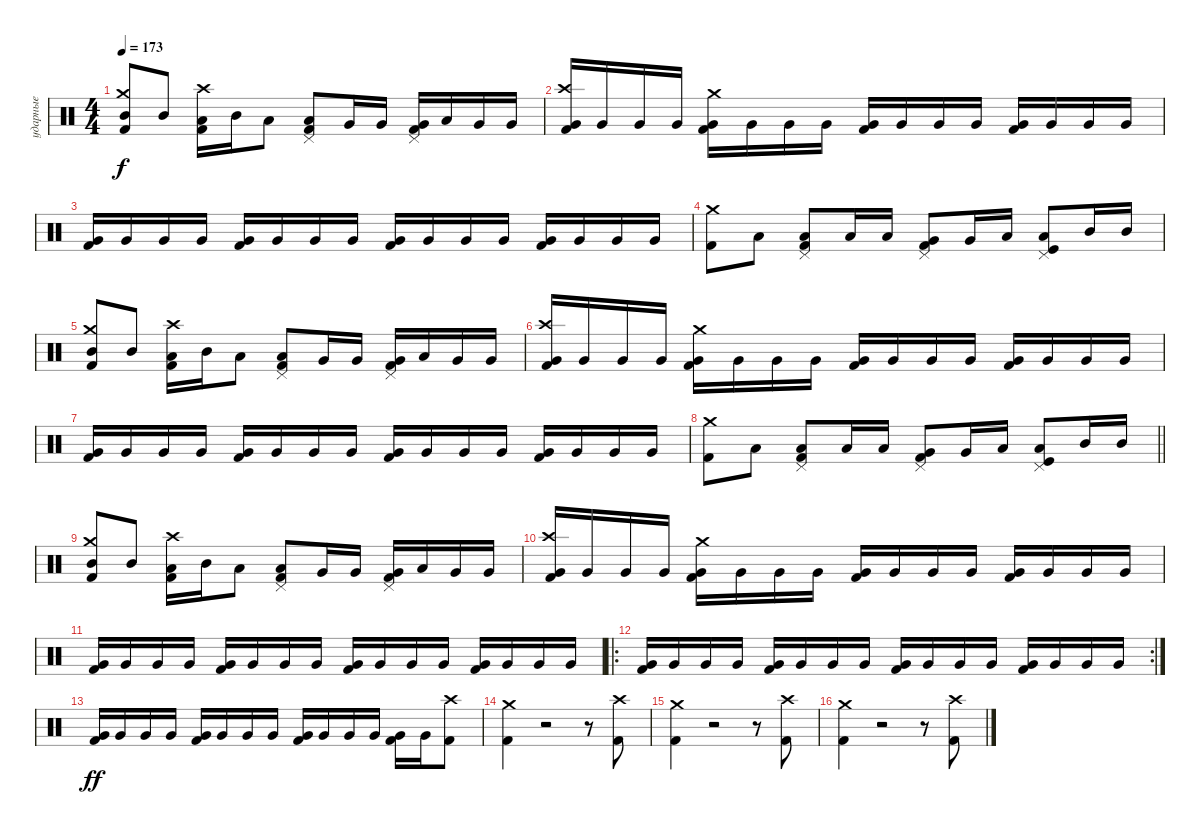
\track ("ударные" "ударные") {instrument percussion}
\staff {score}
\articulation defaults
\ts (4 4)
\tempo 173
\clef neutral
\ks aminor
("Mid Tom (hit)" "Crash medium (hit)" "Kick (hit) 2").8{dy f} "Mid Tom (hit)".8 ("Low Tom (hit)" "Crash high (hit)" "Kick (hit) 2").16 "Mid Tom (hit)".16 "Low Tom (hit)".8 ("Low Tom (hit)" "Kick (hit) 2" "Pedal Hi-Hat (hit)").8 "Very Low Tom (hit)".16 "Very Low Tom (hit)".16 ("Very Low Tom (hit)" "Kick (hit) 2" "Pedal Hi-Hat (hit)").16 "Low Floor Tom (hit)".16 "Very Low Tom (hit)".16 "Very Low Tom (hit)".16 |
("Very Low Tom (hit)" "Kick (hit) 2" "Crash high (hit)").16 "Very Low Tom (hit)".16 "Very Low Tom (hit)".16 "Very Low Tom (hit)".16 ("Very Low Tom (hit)" "Kick (hit) 2" "Crash medium (hit)").16 "Very Low Tom (hit)".16 "Very Low Tom (hit)".16 "Very Low Tom (hit)".16 ("Very Low Tom (hit)" "Kick (hit) 2").16 "Very Low Tom (hit)".16 "Very Low Tom (hit)".16 "Very Low Tom (hit)".16 ("Very Low Tom (hit)" "Kick (hit) 2").16 "Very Low Tom (hit)".16 "Very Low Tom (hit)".16 "Very Low Tom (hit)".16 |
("Very Low Tom (hit)" "Kick (hit) 2").16 "Very Low Tom (hit)".16 "Very Low Tom (hit)".16 "Very Low Tom (hit)".16 ("Very Low Tom (hit)" "Kick (hit) 2").16 "Very Low Tom (hit)".16 "Very Low Tom (hit)".16 "Very Low Tom (hit)".16 ("Very Low Tom (hit)" "Kick (hit) 2").16 "Very Low Tom (hit)".16 "Very Low Tom (hit)".16 "Very Low Tom (hit)".16 ("Very Low Tom (hit)" "Kick (hit) 2").16 "Very Low Tom (hit)".16 "Very Low Tom (hit)".16 "Very Low Tom (hit)".16 |
("Kick (hit) 2" "Crash medium (hit)").8 "Low Tom (hit)".8 ("Low Tom (hit)" "Kick (hit) 2" "Pedal Hi-Hat (hit)").8 "Low Tom (hit)".16 "Low Tom (hit)".16 ("Very Low Tom (hit)" "Kick (hit) 2" "Pedal Hi-Hat (hit)").8 "Very Low Tom (hit)".16 "Low Tom (hit)".16 ("Low Tom (hit)" "Kick (hit)" "Pedal Hi-Hat (hit)").8 "Mid Tom (hit)".16 "Mid Tom (hit)".16 |
("Mid Tom (hit)" "Crash medium (hit)" "Kick (hit) 2").8 "Mid Tom (hit)".8 ("Low Tom (hit)" "Crash high (hit)" "Kick (hit) 2").16 "Mid Tom (hit)".16 "Low Tom (hit)".8 ("Low Tom (hit)" "Kick (hit) 2" "Pedal Hi-Hat (hit)").8 "Very Low Tom (hit)".16 "Very Low Tom (hit)".16 ("Very Low Tom (hit)" "Kick (hit) 2" "Pedal Hi-Hat (hit)").16 "Low Floor Tom (hit)".16 "Very Low Tom (hit)".16 "Very Low Tom (hit)".16 |
("Very Low Tom (hit)" "Kick (hit) 2" "Crash high (hit)").16 "Very Low Tom (hit)".16 "Very Low Tom (hit)".16 "Very Low Tom (hit)".16 ("Very Low Tom (hit)" "Kick (hit) 2" "Crash medium (hit)").16 "Very Low Tom (hit)".16 "Very Low Tom (hit)".16 "Very Low Tom (hit)".16 ("Very Low Tom (hit)" "Kick (hit) 2").16 "Very Low Tom (hit)".16 "Very Low Tom (hit)".16 "Very Low Tom (hit)".16 ("Very Low Tom (hit)" "Kick (hit) 2").16 "Very Low Tom (hit)".16 "Very Low Tom (hit)".16 "Very Low Tom (hit)".16 |
("Very Low Tom (hit)" "Kick (hit) 2").16 "Very Low Tom (hit)".16 "Very Low Tom (hit)".16 "Very Low Tom (hit)".16 ("Very Low Tom (hit)" "Kick (hit) 2").16 "Very Low Tom (hit)".16 "Very Low Tom (hit)".16 "Very Low Tom (hit)".16 ("Very Low Tom (hit)" "Kick (hit) 2").16 "Very Low Tom (hit)".16 "Very Low Tom (hit)".16 "Very Low Tom (hit)".16 ("Very Low Tom (hit)" "Kick (hit) 2").16 "Very Low Tom (hit)".16 "Very Low Tom (hit)".16 "Very Low Tom (hit)".16 |
\barLineRight lightlight
("Kick (hit) 2" "Crash medium (hit)").8 "Low Tom (hit)".8 ("Low Tom (hit)" "Kick (hit) 2" "Pedal Hi-Hat (hit)").8 "Low Tom (hit)".16 "Low Tom (hit)".16 ("Very Low Tom (hit)" "Kick (hit) 2" "Pedal Hi-Hat (hit)").8 "Very Low Tom (hit)".16 "Low Tom (hit)".16 ("Low Tom (hit)" "Kick (hit)" "Pedal Hi-Hat (hit)").8 "Mid Tom (hit)".16 "Mid Tom (hit)".16 |
("Mid Tom (hit)" "Crash medium (hit)" "Kick (hit) 2").8 "Mid Tom (hit)".8 ("Low Tom (hit)" "Crash high (hit)" "Kick (hit) 2").16 "Mid Tom (hit)".16 "Low Tom (hit)".8 ("Low Tom (hit)" "Kick (hit) 2" "Pedal Hi-Hat (hit)").8 "Very Low Tom (hit)".16 "Very Low Tom (hit)".16 ("Very Low Tom (hit)" "Kick (hit) 2" "Pedal Hi-Hat (hit)").16 "Low Floor Tom (hit)".16 "Very Low Tom (hit)".16 "Very Low Tom (hit)".16 |
("Very Low Tom (hit)" "Kick (hit) 2" "Crash high (hit)").16 "Very Low Tom (hit)".16 "Very Low Tom (hit)".16 "Very Low Tom (hit)".16 ("Very Low Tom (hit)" "Kick (hit) 2" "Crash medium (hit)").16 "Very Low Tom (hit)".16 "Very Low Tom (hit)".16 "Very Low Tom (hit)".16 ("Very Low Tom (hit)" "Kick (hit) 2").16 "Very Low Tom (hit)".16 "Very Low Tom (hit)".16 "Very Low Tom (hit)".16 ("Very Low Tom (hit)" "Kick (hit) 2").16 "Very Low Tom (hit)".16 "Very Low Tom (hit)".16 "Very Low Tom (hit)".16 |
("Very Low Tom (hit)" "Kick (hit) 2").16 "Very Low Tom (hit)".16 "Very Low Tom (hit)".16 "Very Low Tom (hit)".16 ("Very Low Tom (hit)" "Kick (hit) 2").16 "Very Low Tom (hit)".16 "Very Low Tom (hit)".16 "Very Low Tom (hit)".16 ("Very Low Tom (hit)" "Kick (hit) 2").16 "Very Low Tom (hit)".16 "Very Low Tom (hit)".16 "Very Low Tom (hit)".16 ("Very Low Tom (hit)" "Kick (hit) 2").16 "Very Low Tom (hit)".16 "Very Low Tom (hit)".16 "Very Low Tom (hit)".16 |
\ro
\rc 2
("Very Low Tom (hit)" "Kick (hit) 2").16 "Very Low Tom (hit)".16 "Very Low Tom (hit)".16 "Very Low Tom (hit)".16 ("Very Low Tom (hit)" "Kick (hit) 2").16 "Very Low Tom (hit)".16 "Very Low Tom (hit)".16 "Very Low Tom (hit)".16 ("Very Low Tom (hit)" "Kick (hit) 2").16 "Very Low Tom (hit)".16 "Very Low Tom (hit)".16 "Very Low Tom (hit)".16 ("Very Low Tom (hit)" "Kick (hit) 2").16 "Very Low Tom (hit)".16 "Very Low Tom (hit)".16 "Very Low Tom (hit)".16 |
("Very Low Tom (hit)" "Kick (hit) 2").16{dy ff} "Very Low Tom (hit)".16 "Very Low Tom (hit)".16 "Very Low Tom (hit)".16 ("Very Low Tom (hit)" "Kick (hit) 2").16 "Very Low Tom (hit)".16 "Very Low Tom (hit)".16 "Very Low Tom (hit)".16 ("Very Low Tom (hit)" "Kick (hit) 2").16 "Very Low Tom (hit)".16 "Very Low Tom (hit)".16 "Very Low Tom (hit)".16 ("Very Low Tom (hit)" "Kick (hit) 2").16 "Very Low Tom (hit)".16 ("Kick (hit) 2" "Crash high (hit)").8 |
("Kick (hit) 2" "Crash medium (hit)").4 r.2 r.8 ("Kick (hit) 2" "Crash high (hit)").8 |
("Kick (hit) 2" "Crash medium (hit)").4 r.2 r.8 ("Kick (hit) 2" "Crash high (hit)").8 |
("Kick (hit) 2" "Crash medium (hit)").4 r.2 r.8 ("Kick (hit) 2" "Crash high (hit)").8
